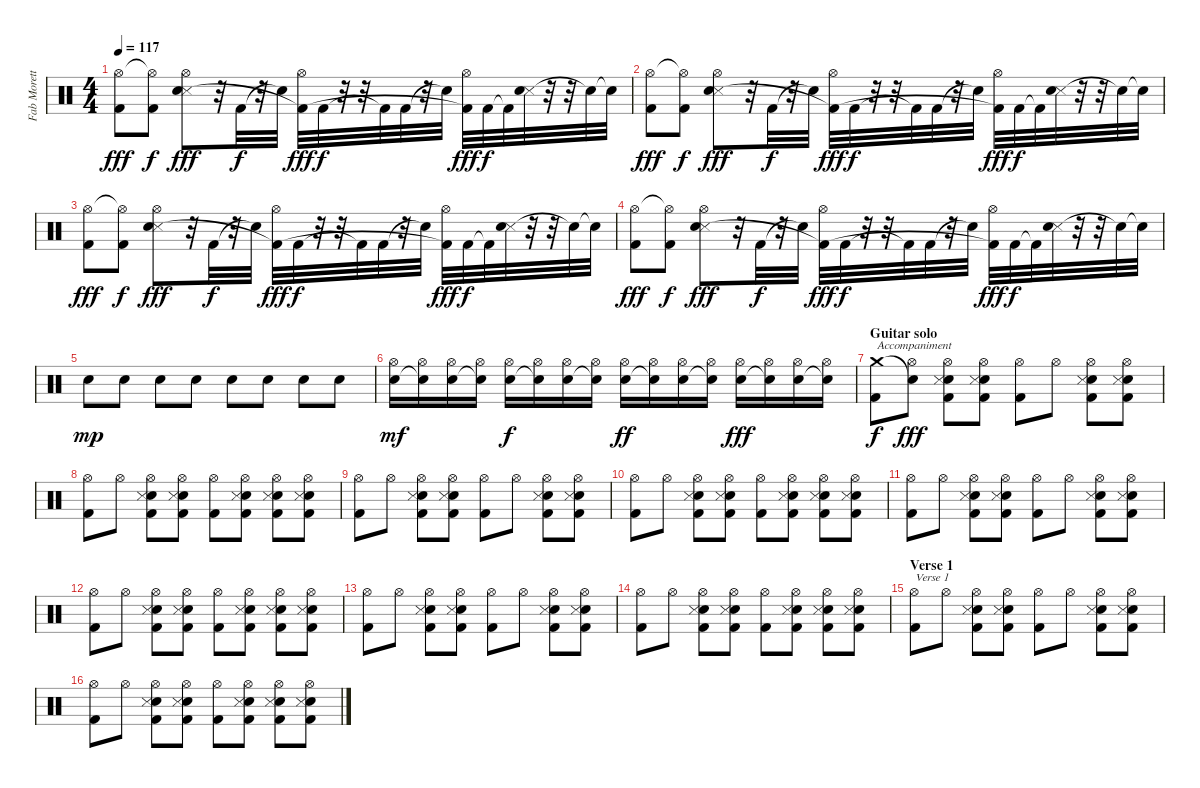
\track ("Fab Moretti" "Fab Morett") {instrument percussion}
\staff {score}
\articulation defaults
\ts (4 4)
\tempo 117
\clef neutral
\ks c
("Hi-Hat (open)" "Kick (hit) 2").8{dy fff} ("Hi-Hat (open)"{t} "Kick (hit) 2").8{dy f} ("Hi-Hat (open)" "Snare (side stick) 3" "Snare (hit) 2").8{dy fff} r.32 "Kick (hit) 2".32{dy f} r.32 "Snare (hit)"{t}.32 ("Hi-Hat (open)" "Kick (hit) 2"{t}).32{dy fff} "Kick (hit) 2".32{dy f} r.32 r.32 "Kick (hit) 2"{t}.32 "Kick (hit) 2".32 r.32 "Snare (hit)"{t}.32 ("Hi-Hat (open)" "Kick (hit) 2"{t}).32{dy fff} "Kick (hit) 2".32{dy f} "Kick (hit) 2"{t}.32 ("Snare (side stick) 3" "Snare (hit) 2").32 r.32 r.32 "Snare (hit)"{t}.32 "Snare (hit)"{t}.32 |
("Hi-Hat (open)" "Kick (hit) 2").8{dy fff} ("Hi-Hat (open)"{t} "Kick (hit) 2").8{dy f} ("Hi-Hat (open)" "Snare (side stick) 3" "Snare (hit) 2").8{dy fff} r.32 "Kick (hit) 2".32{dy f} r.32 "Snare (hit)"{t}.32 ("Hi-Hat (open)" "Kick (hit) 2"{t}).32{dy fff} "Kick (hit) 2".32{dy f} r.32 r.32 "Kick (hit) 2"{t}.32 "Kick (hit) 2".32 r.32 "Snare (hit)"{t}.32 ("Hi-Hat (open)" "Kick (hit) 2"{t}).32{dy fff} "Kick (hit) 2".32{dy f} "Kick (hit) 2"{t}.32 ("Snare (side stick) 3" "Snare (hit) 2").32 r.32 r.32 "Snare (hit)"{t}.32 "Snare (hit)"{t}.32 |
("Hi-Hat (open)" "Kick (hit) 2").8{dy fff} ("Hi-Hat (open)"{t} "Kick (hit) 2").8{dy f} ("Hi-Hat (open)" "Snare (side stick) 3" "Snare (hit) 2").8{dy fff} r.32 "Kick (hit) 2".32{dy f} r.32 "Snare (hit)"{t}.32 ("Hi-Hat (open)" "Kick (hit) 2"{t}).32{dy fff} "Kick (hit) 2".32{dy f} r.32 r.32 "Kick (hit) 2"{t}.32 "Kick (hit) 2".32 r.32 "Snare (hit)"{t}.32 ("Hi-Hat (open)" "Kick (hit) 2"{t}).32{dy fff} "Kick (hit) 2".32{dy f} "Kick (hit) 2"{t}.32 ("Snare (side stick) 3" "Snare (hit) 2").32 r.32 r.32 "Snare (hit)"{t}.32 "Snare (hit)"{t}.32 |
("Hi-Hat (open)" "Kick (hit) 2").8{dy fff} ("Hi-Hat (open)"{t} "Kick (hit) 2").8{dy f} ("Hi-Hat (open)" "Snare (side stick) 3" "Snare (hit) 2").8{dy fff} r.32 "Kick (hit) 2".32{dy f} r.32 "Snare (hit)"{t}.32 ("Hi-Hat (open)" "Kick (hit) 2"{t}).32{dy fff} "Kick (hit) 2".32{dy f} r.32 r.32 "Kick (hit) 2"{t}.32 "Kick (hit) 2".32 r.32 "Snare (hit)"{t}.32 ("Hi-Hat (open)" "Kick (hit) 2"{t}).32{dy fff} "Kick (hit) 2".32{dy f} "Kick (hit) 2"{t}.32 ("Snare (side stick) 3" "Snare (hit) 2").32 r.32 r.32 "Snare (hit)"{t}.32 "Snare (hit)"{t}.32 |
"Snare (hit) 2".8{dy mp} "Snare (hit) 2".8 "Snare (hit) 2".8 "Snare (hit) 2".8 "Snare (hit) 2".8 "Snare (hit) 2".8 "Snare (hit) 2".8 "Snare (hit) 2".8 |
("Snare (hit) 2" "Hi-Hat (open)").16{dy mf} ("Snare (hit) 2"{t} "Hi-Hat (open)").16 ("Snare (hit) 2" "Hi-Hat (open)").16 ("Snare (hit) 2"{t} "Hi-Hat (open)").16 ("Snare (hit) 2" "Hi-Hat (open)").16{dy f} ("Snare (hit) 2"{t} "Hi-Hat (open)").16 ("Snare (hit) 2" "Hi-Hat (open)").16 ("Snare (hit) 2"{t} "Hi-Hat (open)").16 ("Snare (hit) 2" "Hi-Hat (open)").16{dy ff} ("Snare (hit) 2"{t} "Hi-Hat (open)").16 ("Snare (hit) 2" "Hi-Hat (open)").16 ("Snare (hit) 2"{t} "Hi-Hat (open)").16 ("Snare (hit) 2" "Hi-Hat (open)").16{dy fff} ("Snare (hit) 2"{t} "Hi-Hat (open)").16 ("Snare (hit) 2" "Hi-Hat (open)").16 ("Snare (hit) 2"{t} "Hi-Hat (open)").16 |
\section ("" "Guitar solo")
("Kick (hit) 2" "Crash medium (hit)").8{txt "Accompaniment" dy f} ("Hi-Hat (open)" "Snare (hit)"{t}).8{dy fff} ("Snare (hit) 2" "Snare (side stick) 3" "Kick (hit) 2" "Hi-Hat (open)").8 ("Snare (hit) 2" "Snare (side stick) 3" "Kick (hit) 2" "Hi-Hat (open)").8 ("Kick (hit) 2" "Hi-Hat (open)").8 "Hi-Hat (open)".8 ("Snare (hit) 2" "Snare (side stick) 3" "Kick (hit) 2" "Hi-Hat (open)").8 ("Snare (hit) 2" "Snare (side stick) 3" "Kick (hit) 2" "Hi-Hat (open)").8 |
("Kick (hit) 2" "Hi-Hat (open)").8 "Hi-Hat (open)".8 ("Snare (hit) 2" "Snare (side stick) 3" "Kick (hit) 2" "Hi-Hat (open)").8 ("Snare (hit) 2" "Snare (side stick) 3" "Kick (hit) 2" "Hi-Hat (open)").8 ("Kick (hit) 2" "Hi-Hat (open)").8 ("Snare (hit) 2" "Snare (side stick) 3" "Kick (hit) 2" "Hi-Hat (open)").8 ("Snare (hit) 2" "Snare (side stick) 3" "Kick (hit) 2" "Hi-Hat (open)").8 ("Snare (hit) 2" "Snare (side stick) 3" "Kick (hit) 2" "Hi-Hat (open)").8 |
("Kick (hit) 2" "Hi-Hat (open)").8 "Hi-Hat (open)".8 ("Snare (hit) 2" "Snare (side stick) 3" "Kick (hit) 2" "Hi-Hat (open)").8 ("Snare (hit) 2" "Snare (side stick) 3" "Kick (hit) 2" "Hi-Hat (open)").8 ("Kick (hit) 2" "Hi-Hat (open)").8 "Hi-Hat (open)".8 ("Snare (hit) 2" "Snare (side stick) 3" "Kick (hit) 2" "Hi-Hat (open)").8 ("Snare (hit) 2" "Snare (side stick) 3" "Kick (hit) 2" "Hi-Hat (open)").8 |
("Kick (hit) 2" "Hi-Hat (open)").8 "Hi-Hat (open)".8 ("Snare (hit) 2" "Snare (side stick) 3" "Kick (hit) 2" "Hi-Hat (open)").8 ("Snare (hit) 2" "Snare (side stick) 3" "Kick (hit) 2" "Hi-Hat (open)").8 ("Kick (hit) 2" "Hi-Hat (open)").8 ("Snare (hit) 2" "Snare (side stick) 3" "Kick (hit) 2" "Hi-Hat (open)").8 ("Snare (hit) 2" "Snare (side stick) 3" "Kick (hit) 2" "Hi-Hat (open)").8 ("Snare (hit) 2" "Snare (side stick) 3" "Kick (hit) 2" "Hi-Hat (open)").8 |
("Kick (hit) 2" "Hi-Hat (open)").8 "Hi-Hat (open)".8 ("Snare (hit) 2" "Snare (side stick) 3" "Kick (hit) 2" "Hi-Hat (open)").8 ("Snare (hit) 2" "Snare (side stick) 3" "Kick (hit) 2" "Hi-Hat (open)").8 ("Kick (hit) 2" "Hi-Hat (open)").8 "Hi-Hat (open)".8 ("Snare (hit) 2" "Snare (side stick) 3" "Kick (hit) 2" "Hi-Hat (open)").8 ("Snare (hit) 2" "Snare (side stick) 3" "Kick (hit) 2" "Hi-Hat (open)").8 |
("Kick (hit) 2" "Hi-Hat (open)").8 "Hi-Hat (open)".8 ("Snare (hit) 2" "Snare (side stick) 3" "Kick (hit) 2" "Hi-Hat (open)").8 ("Snare (hit) 2" "Snare (side stick) 3" "Kick (hit) 2" "Hi-Hat (open)").8 ("Kick (hit) 2" "Hi-Hat (open)").8 ("Snare (hit) 2" "Snare (side stick) 3" "Kick (hit) 2" "Hi-Hat (open)").8 ("Snare (hit) 2" "Snare (side stick) 3" "Kick (hit) 2" "Hi-Hat (open)").8 ("Snare (hit) 2" "Snare (side stick) 3" "Kick (hit) 2" "Hi-Hat (open)").8 |
("Kick (hit) 2" "Hi-Hat (open)").8 "Hi-Hat (open)".8 ("Snare (hit) 2" "Snare (side stick) 3" "Kick (hit) 2" "Hi-Hat (open)").8 ("Snare (hit) 2" "Snare (side stick) 3" "Kick (hit) 2" "Hi-Hat (open)").8 ("Kick (hit) 2" "Hi-Hat (open)").8 "Hi-Hat (open)".8 ("Snare (hit) 2" "Snare (side stick) 3" "Kick (hit) 2" "Hi-Hat (open)").8 ("Snare (hit) 2" "Snare (side stick) 3" "Kick (hit) 2" "Hi-Hat (open)").8 |
("Kick (hit) 2" "Hi-Hat (open)").8 "Hi-Hat (open)".8 ("Snare (hit) 2" "Snare (side stick) 3" "Kick (hit) 2" "Hi-Hat (open)").8 ("Snare (hit) 2" "Snare (side stick) 3" "Kick (hit) 2" "Hi-Hat (open)").8 ("Kick (hit) 2" "Hi-Hat (open)").8 ("Snare (hit) 2" "Snare (side stick) 3" "Kick (hit) 2" "Hi-Hat (open)").8 ("Snare (hit) 2" "Snare (side stick) 3" "Kick (hit) 2" "Hi-Hat (open)").8 ("Snare (hit) 2" "Snare (side stick) 3" "Kick (hit) 2" "Hi-Hat (open)").8 |
\section ("" "Verse 1")
("Kick (hit) 2" "Hi-Hat (open)").8{txt "Verse 1"} "Hi-Hat (open)".8 ("Snare (hit) 2" "Snare (side stick) 3" "Kick (hit) 2" "Hi-Hat (open)").8 ("Snare (hit) 2" "Snare (side stick) 3" "Kick (hit) 2" "Hi-Hat (open)").8 ("Kick (hit) 2" "Hi-Hat (open)").8 "Hi-Hat (open)".8 ("Snare (hit) 2" "Snare (side stick) 3" "Kick (hit) 2" "Hi-Hat (open)").8 ("Snare (hit) 2" "Snare (side stick) 3" "Kick (hit) 2" "Hi-Hat (open)").8 |
("Kick (hit) 2" "Hi-Hat (open)").8 "Hi-Hat (open)".8 ("Snare (hit) 2" "Snare (side stick) 3" "Kick (hit) 2" "Hi-Hat (open)").8 ("Snare (hit) 2" "Snare (side stick) 3" "Kick (hit) 2" "Hi-Hat (open)").8 ("Kick (hit) 2" "Hi-Hat (open)").8 ("Snare (hit) 2" "Snare (side stick) 3" "Kick (hit) 2" "Hi-Hat (open)").8 ("Snare (hit) 2" "Snare (side stick) 3" "Kick (hit) 2" "Hi-Hat (open)").8 ("Snare (hit) 2" "Snare (side stick) 3" "Kick (hit) 2" "Hi-Hat (open)").8
